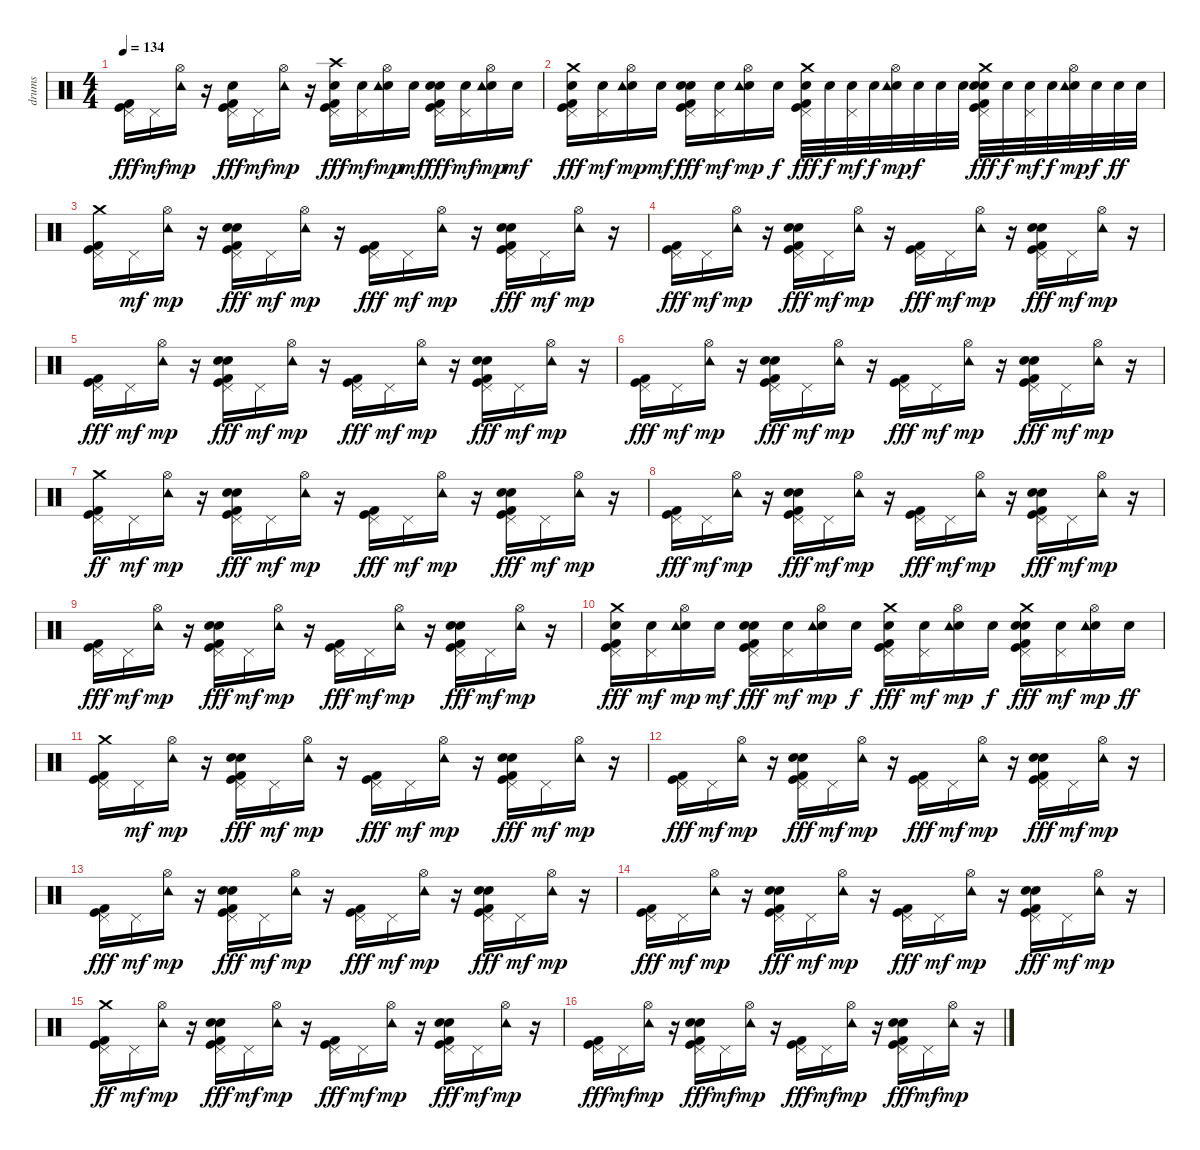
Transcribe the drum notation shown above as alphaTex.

\track ("drums" "drums") {instrument percussion}
\staff {score}
\articulation defaults
\ts (4 4)
\tempo 134
\clef neutral
\ks c
("Kick (hit)" "Kick (hit) 2" "Pedal Hi-Hat (hit)").16{dy fff} "Pedal Hi-Hat (hit)".16{dy mf} ("Hi-Hat (open)" "Tambourine (hit)").16{dy mp} r.16 ("Kick (hit)" "Kick (hit) 2" "Hand Clap (hit)" "Pedal Hi-Hat (hit)").16{dy fff} "Pedal Hi-Hat (hit)".16{dy mf} ("Hi-Hat (open)" "Tambourine (hit)").16{dy mp} r.16 ("Crash high (hit)" "Electric Snare (hit)" "Kick (hit)" "Kick (hit) 2" "Pedal Hi-Hat (hit)").16{dy fff} ("Electric Snare (hit)" "Pedal Hi-Hat (hit)").16{dy mf} ("Electric Snare (hit)" "Hi-Hat (open)" "Tambourine (hit)").16{dy mp} "Electric Snare (hit)".16{dy mf} ("Electric Snare (hit)" "Kick (hit)" "Kick (hit) 2" "Hand Clap (hit)" "Pedal Hi-Hat (hit)").16{dy fff} ("Electric Snare (hit)" "Pedal Hi-Hat (hit)").16{dy mf} ("Electric Snare (hit)" "Hi-Hat (open)" "Tambourine (hit)").16{dy mp} "Electric Snare (hit)".16{dy mf} |
("Crash medium (hit)" "Electric Snare (hit)" "Kick (hit)" "Kick (hit) 2" "Pedal Hi-Hat (hit)").16{dy fff} ("Electric Snare (hit)" "Pedal Hi-Hat (hit)").16{dy mf} ("Electric Snare (hit)" "Hi-Hat (open)" "Tambourine (hit)").16{dy mp} "Electric Snare (hit)".16{dy mf} ("Electric Snare (hit)" "Kick (hit)" "Kick (hit) 2" "Hand Clap (hit)" "Pedal Hi-Hat (hit)").16{dy fff} ("Electric Snare (hit)" "Pedal Hi-Hat (hit)").16{dy mf} ("Electric Snare (hit)" "Hi-Hat (open)" "Tambourine (hit)").16{dy mp} "Electric Snare (hit)".16{dy f} ("Crash medium (hit)" "Electric Snare (hit)" "Kick (hit)" "Kick (hit) 2" "Pedal Hi-Hat (hit)").32{dy fff} "Electric Snare (hit)".32{dy f} ("Electric Snare (hit)" "Pedal Hi-Hat (hit)").32{dy mf} "Electric Snare (hit)".32{dy f} ("Electric Snare (hit)" "Hi-Hat (open)" "Tambourine (hit)").32{dy mp} "Electric Snare (hit)".32{dy f} "Electric Snare (hit)".32 "Electric Snare (hit)".32 ("Crash medium (hit)" "Electric Snare (hit)" "Kick (hit)" "Kick (hit) 2" "Hand Clap (hit)" "Pedal Hi-Hat (hit)").32{dy fff} "Electric Snare (hit)".32{dy f} ("Electric Snare (hit)" "Pedal Hi-Hat (hit)").32{dy mf} "Electric Snare (hit)".32{dy f} ("Electric Snare (hit)" "Hi-Hat (open)" "Tambourine (hit)").32{dy mp} "Electric Snare (hit)".32{dy f} "Electric Snare (hit)".32{dy ff} "Electric Snare (hit)".32 |
("Kick (hit)" "Kick (hit) 2" "Pedal Hi-Hat (hit)" "Crash medium (hit)").16 "Pedal Hi-Hat (hit)".16{dy mf} ("Hi-Hat (open)" "Tambourine (hit)").16{dy mp} r.16 ("Electric Snare (hit)" "Kick (hit)" "Kick (hit) 2" "Hand Clap (hit)" "Pedal Hi-Hat (hit)").16{dy fff} "Pedal Hi-Hat (hit)".16{dy mf} ("Hi-Hat (open)" "Tambourine (hit)").16{dy mp} r.16 ("Kick (hit)" "Kick (hit) 2" "Pedal Hi-Hat (hit)").16{dy fff} "Pedal Hi-Hat (hit)".16{dy mf} ("Hi-Hat (open)" "Tambourine (hit)").16{dy mp} r.16 ("Electric Snare (hit)" "Kick (hit)" "Kick (hit) 2" "Hand Clap (hit)" "Pedal Hi-Hat (hit)").16{dy fff} "Pedal Hi-Hat (hit)".16{dy mf} ("Hi-Hat (open)" "Tambourine (hit)").16{dy mp} r.16 |
("Kick (hit)" "Kick (hit) 2" "Pedal Hi-Hat (hit)").16{dy fff} "Pedal Hi-Hat (hit)".16{dy mf} ("Hi-Hat (open)" "Tambourine (hit)").16{dy mp} r.16 ("Electric Snare (hit)" "Kick (hit)" "Kick (hit) 2" "Hand Clap (hit)" "Pedal Hi-Hat (hit)").16{dy fff} "Pedal Hi-Hat (hit)".16{dy mf} ("Hi-Hat (open)" "Tambourine (hit)").16{dy mp} r.16 ("Kick (hit)" "Kick (hit) 2" "Pedal Hi-Hat (hit)").16{dy fff} "Pedal Hi-Hat (hit)".16{dy mf} ("Hi-Hat (open)" "Tambourine (hit)").16{dy mp} r.16 ("Electric Snare (hit)" "Kick (hit)" "Kick (hit) 2" "Hand Clap (hit)" "Pedal Hi-Hat (hit)").16{dy fff} "Pedal Hi-Hat (hit)".16{dy mf} ("Hi-Hat (open)" "Tambourine (hit)").16{dy mp} r.16 |
("Kick (hit)" "Kick (hit) 2" "Pedal Hi-Hat (hit)").16{dy fff} "Pedal Hi-Hat (hit)".16{dy mf} ("Hi-Hat (open)" "Tambourine (hit)").16{dy mp} r.16 ("Electric Snare (hit)" "Kick (hit)" "Kick (hit) 2" "Hand Clap (hit)" "Pedal Hi-Hat (hit)").16{dy fff} "Pedal Hi-Hat (hit)".16{dy mf} ("Hi-Hat (open)" "Tambourine (hit)").16{dy mp} r.16 ("Kick (hit)" "Kick (hit) 2" "Pedal Hi-Hat (hit)").16{dy fff} "Pedal Hi-Hat (hit)".16{dy mf} ("Hi-Hat (open)" "Tambourine (hit)").16{dy mp} r.16 ("Electric Snare (hit)" "Kick (hit)" "Kick (hit) 2" "Hand Clap (hit)" "Pedal Hi-Hat (hit)").16{dy fff} "Pedal Hi-Hat (hit)".16{dy mf} ("Hi-Hat (open)" "Tambourine (hit)").16{dy mp} r.16 |
("Kick (hit)" "Kick (hit) 2" "Pedal Hi-Hat (hit)").16{dy fff} "Pedal Hi-Hat (hit)".16{dy mf} ("Hi-Hat (open)" "Tambourine (hit)").16{dy mp} r.16 ("Electric Snare (hit)" "Kick (hit)" "Kick (hit) 2" "Hand Clap (hit)" "Pedal Hi-Hat (hit)").16{dy fff} "Pedal Hi-Hat (hit)".16{dy mf} ("Hi-Hat (open)" "Tambourine (hit)").16{dy mp} r.16 ("Kick (hit)" "Kick (hit) 2" "Pedal Hi-Hat (hit)").16{dy fff} "Pedal Hi-Hat (hit)".16{dy mf} ("Hi-Hat (open)" "Tambourine (hit)").16{dy mp} r.16 ("Electric Snare (hit)" "Kick (hit)" "Kick (hit) 2" "Hand Clap (hit)" "Pedal Hi-Hat (hit)").16{dy fff} "Pedal Hi-Hat (hit)".16{dy mf} ("Hi-Hat (open)" "Tambourine (hit)").16{dy mp} r.16 |
("Kick (hit)" "Kick (hit) 2" "Pedal Hi-Hat (hit)" "Crash medium (hit)").16{dy ff} "Pedal Hi-Hat (hit)".16{dy mf} ("Hi-Hat (open)" "Tambourine (hit)").16{dy mp} r.16 ("Electric Snare (hit)" "Kick (hit)" "Kick (hit) 2" "Hand Clap (hit)" "Pedal Hi-Hat (hit)").16{dy fff} "Pedal Hi-Hat (hit)".16{dy mf} ("Hi-Hat (open)" "Tambourine (hit)").16{dy mp} r.16 ("Kick (hit)" "Kick (hit) 2" "Pedal Hi-Hat (hit)").16{dy fff} "Pedal Hi-Hat (hit)".16{dy mf} ("Hi-Hat (open)" "Tambourine (hit)").16{dy mp} r.16 ("Electric Snare (hit)" "Kick (hit)" "Kick (hit) 2" "Hand Clap (hit)" "Pedal Hi-Hat (hit)").16{dy fff} "Pedal Hi-Hat (hit)".16{dy mf} ("Hi-Hat (open)" "Tambourine (hit)").16{dy mp} r.16 |
("Kick (hit)" "Kick (hit) 2" "Pedal Hi-Hat (hit)").16{dy fff} "Pedal Hi-Hat (hit)".16{dy mf} ("Hi-Hat (open)" "Tambourine (hit)").16{dy mp} r.16 ("Electric Snare (hit)" "Kick (hit)" "Kick (hit) 2" "Hand Clap (hit)" "Pedal Hi-Hat (hit)").16{dy fff} "Pedal Hi-Hat (hit)".16{dy mf} ("Hi-Hat (open)" "Tambourine (hit)").16{dy mp} r.16 ("Kick (hit)" "Kick (hit) 2" "Pedal Hi-Hat (hit)").16{dy fff} "Pedal Hi-Hat (hit)".16{dy mf} ("Hi-Hat (open)" "Tambourine (hit)").16{dy mp} r.16 ("Electric Snare (hit)" "Kick (hit)" "Kick (hit) 2" "Hand Clap (hit)" "Pedal Hi-Hat (hit)").16{dy fff} "Pedal Hi-Hat (hit)".16{dy mf} ("Hi-Hat (open)" "Tambourine (hit)").16{dy mp} r.16 |
("Kick (hit)" "Kick (hit) 2" "Pedal Hi-Hat (hit)").16{dy fff} "Pedal Hi-Hat (hit)".16{dy mf} ("Hi-Hat (open)" "Tambourine (hit)").16{dy mp} r.16 ("Electric Snare (hit)" "Kick (hit)" "Kick (hit) 2" "Hand Clap (hit)" "Pedal Hi-Hat (hit)").16{dy fff} "Pedal Hi-Hat (hit)".16{dy mf} ("Hi-Hat (open)" "Tambourine (hit)").16{dy mp} r.16 ("Kick (hit)" "Kick (hit) 2" "Pedal Hi-Hat (hit)").16{dy fff} "Pedal Hi-Hat (hit)".16{dy mf} ("Hi-Hat (open)" "Tambourine (hit)").16{dy mp} r.16 ("Electric Snare (hit)" "Kick (hit)" "Kick (hit) 2" "Hand Clap (hit)" "Pedal Hi-Hat (hit)").16{dy fff} "Pedal Hi-Hat (hit)".16{dy mf} ("Hi-Hat (open)" "Tambourine (hit)").16{dy mp} r.16 |
("Crash medium (hit)" "Electric Snare (hit)" "Kick (hit)" "Kick (hit) 2" "Pedal Hi-Hat (hit)").16{dy fff} ("Electric Snare (hit)" "Pedal Hi-Hat (hit)").16{dy mf} ("Electric Snare (hit)" "Hi-Hat (open)" "Tambourine (hit)").16{dy mp} "Electric Snare (hit)".16{dy mf} ("Electric Snare (hit)" "Kick (hit)" "Kick (hit) 2" "Hand Clap (hit)" "Pedal Hi-Hat (hit)").16{dy fff} ("Electric Snare (hit)" "Pedal Hi-Hat (hit)").16{dy mf} ("Electric Snare (hit)" "Hi-Hat (open)" "Tambourine (hit)").16{dy mp} "Electric Snare (hit)".16{dy f} ("Crash medium (hit)" "Electric Snare (hit)" "Kick (hit)" "Kick (hit) 2" "Pedal Hi-Hat (hit)").16{dy fff} ("Electric Snare (hit)" "Pedal Hi-Hat (hit)").16{dy mf} ("Electric Snare (hit)" "Hi-Hat (open)" "Tambourine (hit)").16{dy mp} "Electric Snare (hit)".16{dy f} ("Crash medium (hit)" "Electric Snare (hit)" "Kick (hit)" "Kick (hit) 2" "Hand Clap (hit)" "Pedal Hi-Hat (hit)").16{dy fff} ("Electric Snare (hit)" "Pedal Hi-Hat (hit)").16{dy mf} ("Electric Snare (hit)" "Hi-Hat (open)" "Tambourine (hit)").16{dy mp} "Electric Snare (hit)".16{dy ff} |
("Kick (hit)" "Kick (hit) 2" "Pedal Hi-Hat (hit)" "Crash medium (hit)").16 "Pedal Hi-Hat (hit)".16{dy mf} ("Hi-Hat (open)" "Tambourine (hit)").16{dy mp} r.16 ("Electric Snare (hit)" "Kick (hit)" "Kick (hit) 2" "Hand Clap (hit)" "Pedal Hi-Hat (hit)").16{dy fff} "Pedal Hi-Hat (hit)".16{dy mf} ("Hi-Hat (open)" "Tambourine (hit)").16{dy mp} r.16 ("Kick (hit)" "Kick (hit) 2" "Pedal Hi-Hat (hit)").16{dy fff} "Pedal Hi-Hat (hit)".16{dy mf} ("Hi-Hat (open)" "Tambourine (hit)").16{dy mp} r.16 ("Electric Snare (hit)" "Kick (hit)" "Kick (hit) 2" "Hand Clap (hit)" "Pedal Hi-Hat (hit)").16{dy fff} "Pedal Hi-Hat (hit)".16{dy mf} ("Hi-Hat (open)" "Tambourine (hit)").16{dy mp} r.16 |
("Kick (hit)" "Kick (hit) 2" "Pedal Hi-Hat (hit)").16{dy fff} "Pedal Hi-Hat (hit)".16{dy mf} ("Hi-Hat (open)" "Tambourine (hit)").16{dy mp} r.16 ("Electric Snare (hit)" "Kick (hit)" "Kick (hit) 2" "Hand Clap (hit)" "Pedal Hi-Hat (hit)").16{dy fff} "Pedal Hi-Hat (hit)".16{dy mf} ("Hi-Hat (open)" "Tambourine (hit)").16{dy mp} r.16 ("Kick (hit)" "Kick (hit) 2" "Pedal Hi-Hat (hit)").16{dy fff} "Pedal Hi-Hat (hit)".16{dy mf} ("Hi-Hat (open)" "Tambourine (hit)").16{dy mp} r.16 ("Electric Snare (hit)" "Kick (hit)" "Kick (hit) 2" "Hand Clap (hit)" "Pedal Hi-Hat (hit)").16{dy fff} "Pedal Hi-Hat (hit)".16{dy mf} ("Hi-Hat (open)" "Tambourine (hit)").16{dy mp} r.16 |
("Kick (hit)" "Kick (hit) 2" "Pedal Hi-Hat (hit)").16{dy fff} "Pedal Hi-Hat (hit)".16{dy mf} ("Hi-Hat (open)" "Tambourine (hit)").16{dy mp} r.16 ("Electric Snare (hit)" "Kick (hit)" "Kick (hit) 2" "Hand Clap (hit)" "Pedal Hi-Hat (hit)").16{dy fff} "Pedal Hi-Hat (hit)".16{dy mf} ("Hi-Hat (open)" "Tambourine (hit)").16{dy mp} r.16 ("Kick (hit)" "Kick (hit) 2" "Pedal Hi-Hat (hit)").16{dy fff} "Pedal Hi-Hat (hit)".16{dy mf} ("Hi-Hat (open)" "Tambourine (hit)").16{dy mp} r.16 ("Electric Snare (hit)" "Kick (hit)" "Kick (hit) 2" "Hand Clap (hit)" "Pedal Hi-Hat (hit)").16{dy fff} "Pedal Hi-Hat (hit)".16{dy mf} ("Hi-Hat (open)" "Tambourine (hit)").16{dy mp} r.16 |
("Kick (hit)" "Kick (hit) 2" "Pedal Hi-Hat (hit)").16{dy fff} "Pedal Hi-Hat (hit)".16{dy mf} ("Hi-Hat (open)" "Tambourine (hit)").16{dy mp} r.16 ("Electric Snare (hit)" "Kick (hit)" "Kick (hit) 2" "Hand Clap (hit)" "Pedal Hi-Hat (hit)").16{dy fff} "Pedal Hi-Hat (hit)".16{dy mf} ("Hi-Hat (open)" "Tambourine (hit)").16{dy mp} r.16 ("Kick (hit)" "Kick (hit) 2" "Pedal Hi-Hat (hit)").16{dy fff} "Pedal Hi-Hat (hit)".16{dy mf} ("Hi-Hat (open)" "Tambourine (hit)").16{dy mp} r.16 ("Electric Snare (hit)" "Kick (hit)" "Kick (hit) 2" "Hand Clap (hit)" "Pedal Hi-Hat (hit)").16{dy fff} "Pedal Hi-Hat (hit)".16{dy mf} ("Hi-Hat (open)" "Tambourine (hit)").16{dy mp} r.16 |
("Kick (hit)" "Kick (hit) 2" "Pedal Hi-Hat (hit)" "Crash medium (hit)").16{dy ff} "Pedal Hi-Hat (hit)".16{dy mf} ("Hi-Hat (open)" "Tambourine (hit)").16{dy mp} r.16 ("Electric Snare (hit)" "Kick (hit)" "Kick (hit) 2" "Hand Clap (hit)" "Pedal Hi-Hat (hit)").16{dy fff} "Pedal Hi-Hat (hit)".16{dy mf} ("Hi-Hat (open)" "Tambourine (hit)").16{dy mp} r.16 ("Kick (hit)" "Kick (hit) 2" "Pedal Hi-Hat (hit)").16{dy fff} "Pedal Hi-Hat (hit)".16{dy mf} ("Hi-Hat (open)" "Tambourine (hit)").16{dy mp} r.16 ("Electric Snare (hit)" "Kick (hit)" "Kick (hit) 2" "Hand Clap (hit)" "Pedal Hi-Hat (hit)").16{dy fff} "Pedal Hi-Hat (hit)".16{dy mf} ("Hi-Hat (open)" "Tambourine (hit)").16{dy mp} r.16 |
("Kick (hit)" "Kick (hit) 2" "Pedal Hi-Hat (hit)").16{dy fff} "Pedal Hi-Hat (hit)".16{dy mf} ("Hi-Hat (open)" "Tambourine (hit)").16{dy mp} r.16 ("Electric Snare (hit)" "Kick (hit)" "Kick (hit) 2" "Hand Clap (hit)" "Pedal Hi-Hat (hit)").16{dy fff} "Pedal Hi-Hat (hit)".16{dy mf} ("Hi-Hat (open)" "Tambourine (hit)").16{dy mp} r.16 ("Kick (hit)" "Kick (hit) 2" "Pedal Hi-Hat (hit)").16{dy fff} "Pedal Hi-Hat (hit)".16{dy mf} ("Hi-Hat (open)" "Tambourine (hit)").16{dy mp} r.16 ("Electric Snare (hit)" "Kick (hit)" "Kick (hit) 2" "Hand Clap (hit)" "Pedal Hi-Hat (hit)").16{dy fff} "Pedal Hi-Hat (hit)".16{dy mf} ("Hi-Hat (open)" "Tambourine (hit)").16{dy mp} r.16
